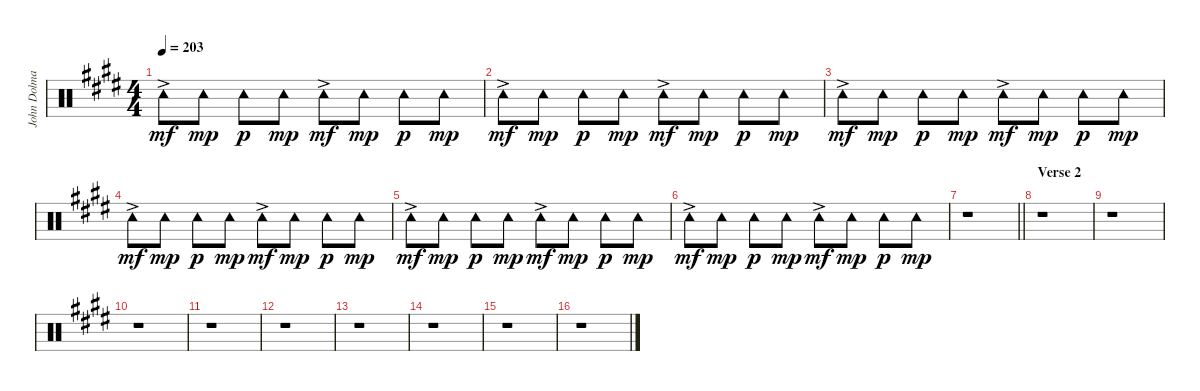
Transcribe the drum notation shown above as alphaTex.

\track ("John Dolmayan [Tambourine]" "John Dolma") {instrument percussion}
\staff {score}
\articulation defaults
\ts (4 4)
\tempo 203
\clef neutral
\ks c#minor "Tambourine (hit)"{ac}.8{dy mf} "Tambourine (hit)".8{dy mp} "Tambourine (hit)".8{dy p} "Tambourine (hit)".8{dy mp} "Tambourine (hit)"{ac}.8{dy mf} "Tambourine (hit)".8{dy mp} "Tambourine (hit)".8{dy p} "Tambourine (hit)".8{dy mp}
|
"Tambourine (hit)"{ac}.8{dy mf} "Tambourine (hit)".8{dy mp} "Tambourine (hit)".8{dy p} "Tambourine (hit)".8{dy mp} "Tambourine (hit)"{ac}.8{dy mf} "Tambourine (hit)".8{dy mp} "Tambourine (hit)".8{dy p} "Tambourine (hit)".8{dy mp} |
"Tambourine (hit)"{ac}.8{dy mf} "Tambourine (hit)".8{dy mp} "Tambourine (hit)".8{dy p} "Tambourine (hit)".8{dy mp} "Tambourine (hit)"{ac}.8{dy mf} "Tambourine (hit)".8{dy mp} "Tambourine (hit)".8{dy p} "Tambourine (hit)".8{dy mp} |
"Tambourine (hit)"{ac}.8{dy mf} "Tambourine (hit)".8{dy mp} "Tambourine (hit)".8{dy p} "Tambourine (hit)".8{dy mp} "Tambourine (hit)"{ac}.8{dy mf} "Tambourine (hit)".8{dy mp} "Tambourine (hit)".8{dy p} "Tambourine (hit)".8{dy mp} |
"Tambourine (hit)"{ac}.8{dy mf} "Tambourine (hit)".8{dy mp} "Tambourine (hit)".8{dy p} "Tambourine (hit)".8{dy mp} "Tambourine (hit)"{ac}.8{dy mf} "Tambourine (hit)".8{dy mp} "Tambourine (hit)".8{dy p} "Tambourine (hit)".8{dy mp} |
"Tambourine (hit)"{ac}.8{dy mf} "Tambourine (hit)".8{dy mp} "Tambourine (hit)".8{dy p} "Tambourine (hit)".8{dy mp} "Tambourine (hit)"{ac}.8{dy mf} "Tambourine (hit)".8{dy mp} "Tambourine (hit)".8{dy p} "Tambourine (hit)".8{dy mp} |
\barLineRight lightlight
r.1 |
\section ("" "Verse 2")
r.1 |
r.1 |
r.1 |
r.1 |
r.1 |
r.1 |
r.1 |
r.1 |
r.1
